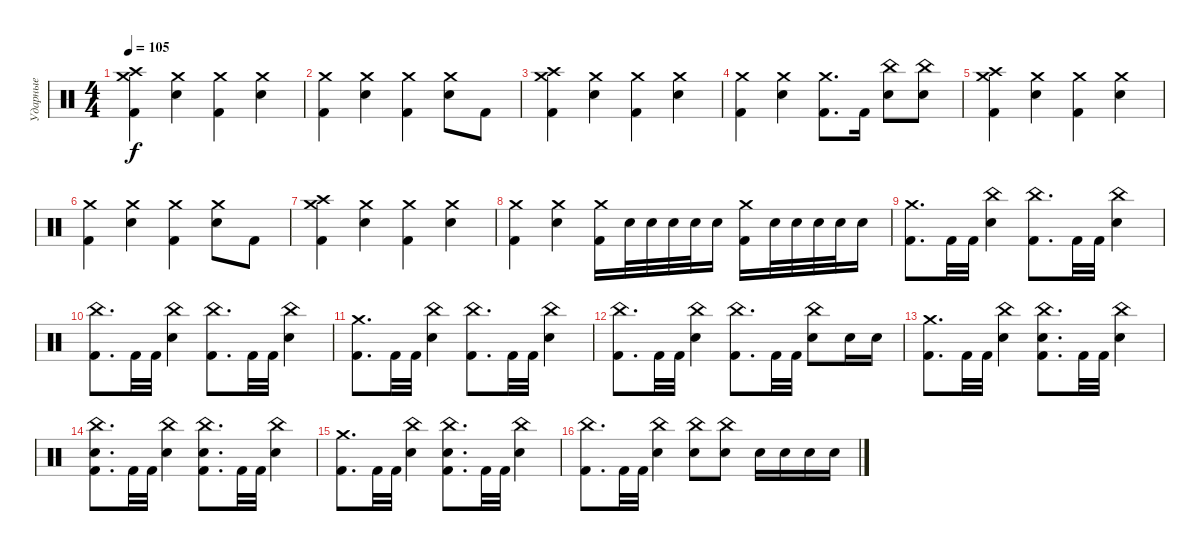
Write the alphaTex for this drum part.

\track ("Ударные" "Ударные") {instrument percussion}
\staff {score}
\articulation defaults
\ts (4 4)
\tempo 105
\clef neutral
\ks c
("Crash medium (hit)" "Crash high (hit)" "Kick (hit) 2").4{dy f} ("Crash medium (hit)" "Electric Snare (hit)").4 ("Crash medium (hit)" "Kick (hit) 2").4 ("Crash medium (hit)" "Electric Snare (hit)").4 |
("Crash medium (hit)" "Kick (hit) 2").4 ("Crash medium (hit)" "Electric Snare (hit)").4 ("Crash medium (hit)" "Kick (hit) 2").4 ("Crash medium (hit)" "Electric Snare (hit)").8 "Kick (hit) 2".8 |
("Crash medium (hit)" "Crash high (hit)" "Kick (hit) 2").4 ("Crash medium (hit)" "Electric Snare (hit)").4 ("Crash medium (hit)" "Kick (hit) 2").4 ("Crash medium (hit)" "Electric Snare (hit)").4 |
("Crash medium (hit)" "Kick (hit) 2").4 ("Crash medium (hit)" "Electric Snare (hit)").4 ("Crash medium (hit)" "Kick (hit) 2").8{d} "Kick (hit) 2".16 ("China (hit)" "Electric Snare (hit)").8 ("China (hit)" "Electric Snare (hit)").8 |
("Crash medium (hit)" "Crash high (hit)" "Kick (hit) 2").4 ("Crash medium (hit)" "Electric Snare (hit)").4 ("Crash medium (hit)" "Kick (hit) 2").4 ("Crash medium (hit)" "Electric Snare (hit)").4 |
("Crash medium (hit)" "Kick (hit) 2").4 ("Crash medium (hit)" "Electric Snare (hit)").4 ("Crash medium (hit)" "Kick (hit) 2").4 ("Crash medium (hit)" "Electric Snare (hit)").8 "Kick (hit) 2".8 |
("Crash medium (hit)" "Crash high (hit)" "Kick (hit) 2").4 ("Crash medium (hit)" "Electric Snare (hit)").4 ("Crash medium (hit)" "Kick (hit) 2").4 ("Crash medium (hit)" "Electric Snare (hit)").4 |
("Crash medium (hit)" "Kick (hit) 2").4 ("Crash medium (hit)" "Electric Snare (hit)").4 ("Crash medium (hit)" "Kick (hit) 2").16 "Electric Snare (hit)".32 "Electric Snare (hit)".32 "Electric Snare (hit)".32 "Electric Snare (hit)".32 "Electric Snare (hit)".16 ("Crash medium (hit)" "Kick (hit) 2").16 "Electric Snare (hit)".32 "Electric Snare (hit)".32 "Electric Snare (hit)".32 "Electric Snare (hit)".32 "Electric Snare (hit)".16 |
("Crash medium (hit)" "Kick (hit) 2").8{d} "Kick (hit) 2".32 "Kick (hit) 2".32 ("China (hit)" "Electric Snare (hit)").4 ("China (hit)" "Kick (hit) 2").8{d} "Kick (hit) 2".32 "Kick (hit) 2".32 ("China (hit)" "Electric Snare (hit)").4 |
("China (hit)" "Kick (hit) 2").8{d} "Kick (hit) 2".32 "Kick (hit) 2".32 ("China (hit)" "Electric Snare (hit)").4 ("China (hit)" "Kick (hit) 2").8{d} "Kick (hit) 2".32 "Kick (hit) 2".32 ("China (hit)" "Electric Snare (hit)").4 |
("Crash medium (hit)" "Kick (hit) 2").8{d} "Kick (hit) 2".32 "Kick (hit) 2".32 ("China (hit)" "Electric Snare (hit)").4 ("China (hit)" "Kick (hit) 2").8{d} "Kick (hit) 2".32 "Kick (hit) 2".32 ("China (hit)" "Electric Snare (hit)").4 |
("China (hit)" "Kick (hit) 2").8{d} "Kick (hit) 2".32 "Kick (hit) 2".32 ("China (hit)" "Electric Snare (hit)").4 ("China (hit)" "Kick (hit) 2").8{d} "Kick (hit) 2".32 "Kick (hit) 2".32 ("China (hit)" "Electric Snare (hit)").8 "Electric Snare (hit)".16 "Electric Snare (hit)".16 |
("Crash medium (hit)" "Kick (hit) 2").8{d} "Kick (hit) 2".32 "Kick (hit) 2".32 ("China (hit)" "Electric Snare (hit)").4 ("China (hit)" "Electric Snare (hit)" "Kick (hit) 2").8{d} "Kick (hit) 2".32 "Kick (hit) 2".32 ("China (hit)" "Electric Snare (hit)").4 |
("China (hit)" "Electric Snare (hit)" "Kick (hit) 2").8{d} "Kick (hit) 2".32 "Kick (hit) 2".32 ("China (hit)" "Electric Snare (hit)").4 ("China (hit)" "Electric Snare (hit)" "Kick (hit) 2").8{d} "Kick (hit) 2".32 "Kick (hit) 2".32 ("China (hit)" "Electric Snare (hit)").4 |
("Crash medium (hit)" "Kick (hit) 2").8{d} "Kick (hit) 2".32 "Kick (hit) 2".32 ("China (hit)" "Electric Snare (hit)").4 ("China (hit)" "Electric Snare (hit)" "Kick (hit) 2").8{d} "Kick (hit) 2".32 "Kick (hit) 2".32 ("China (hit)" "Electric Snare (hit)").4 |
("China (hit)" "Kick (hit) 2").8{d} "Kick (hit) 2".32 "Kick (hit) 2".32 ("China (hit)" "Electric Snare (hit)").4 ("China (hit)" "Electric Snare (hit)").8 ("China (hit)" "Electric Snare (hit)").8 "Electric Snare (hit)".16 "Electric Snare (hit)".16 "Electric Snare (hit)".16 "Electric Snare (hit)".16
